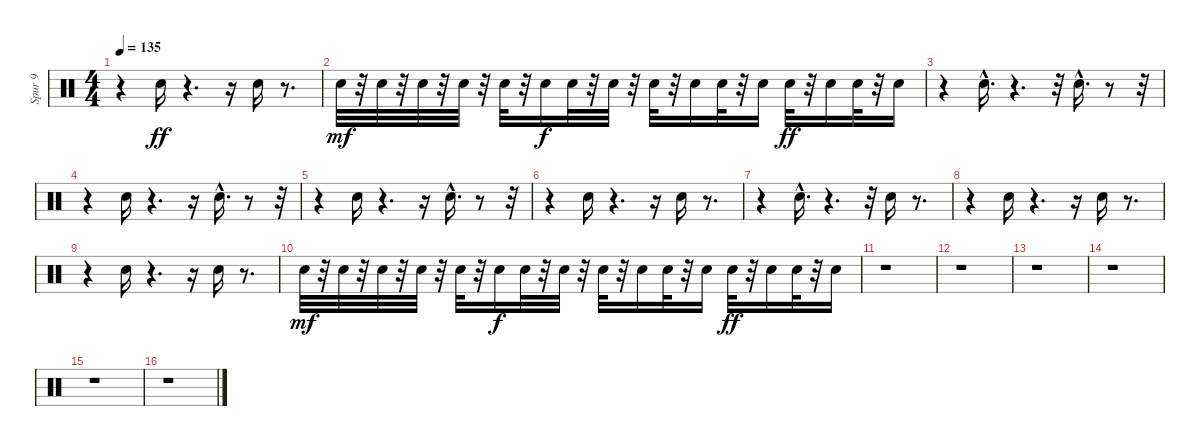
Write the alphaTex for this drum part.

\track ("Spur 9" "Spur 9") {instrument percussion}
\staff {score}
\articulation defaults
\ts (4 4)
\tempo 135
\clef neutral
\ks c
r.4{dy ff} "Electric Snare (hit)".16 r.4{d} r.16 "Electric Snare (hit)".16 r.8{d} |
"Electric Snare (hit)".32{dy mf} r.32 "Electric Snare (hit)".32 r.32 "Electric Snare (hit)".32 r.32 "Electric Snare (hit)".32 r.32 "Electric Snare (hit)".32 r.32 "Electric Snare (hit)".16{dy f} "Electric Snare (hit)".32 r.32 "Electric Snare (hit)".32 r.32 "Electric Snare (hit)".32 r.32 "Electric Snare (hit)".16 "Electric Snare (hit)".32 r.32 "Electric Snare (hit)".16 "Electric Snare (hit)".32{dy ff} r.32 "Electric Snare (hit)".16 "Electric Snare (hit)".32 r.32 "Electric Snare (hit)".16 |
r.4 "Electric Snare (hit)"{hac}.16{d} r.4{d} r.32 "Electric Snare (hit)"{hac}.16{d} r.8 r.32 |
r.4 "Electric Snare (hit)".16 r.4{d} r.16 "Electric Snare (hit)"{hac}.16{d} r.8 r.32 |
r.4 "Electric Snare (hit)".16 r.4{d} r.16 "Electric Snare (hit)"{hac}.16{d} r.8 r.32 |
r.4 "Electric Snare (hit)".16 r.4{d} r.16 "Electric Snare (hit)".16 r.8{d} |
r.4 "Electric Snare (hit)"{hac}.16{d} r.4{d} r.32 "Electric Snare (hit)".16 r.8{d} |
r.4 "Electric Snare (hit)".16 r.4{d} r.16 "Electric Snare (hit)".16 r.8{d} |
r.4 "Electric Snare (hit)".16 r.4{d} r.16 "Electric Snare (hit)".16 r.8{d} |
"Electric Snare (hit)".32{dy mf} r.32 "Electric Snare (hit)".32 r.32 "Electric Snare (hit)".32 r.32 "Electric Snare (hit)".32 r.32 "Electric Snare (hit)".32 r.32 "Electric Snare (hit)".16{dy f} "Electric Snare (hit)".32 r.32 "Electric Snare (hit)".32 r.32 "Electric Snare (hit)".32 r.32 "Electric Snare (hit)".16 "Electric Snare (hit)".32 r.32 "Electric Snare (hit)".16 "Electric Snare (hit)".32{dy ff} r.32 "Electric Snare (hit)".16 "Electric Snare (hit)".32 r.32 "Electric Snare (hit)".16 |
r.1 |
r.1 |
r.1 |
r.1 |
r.1 |
r.1
